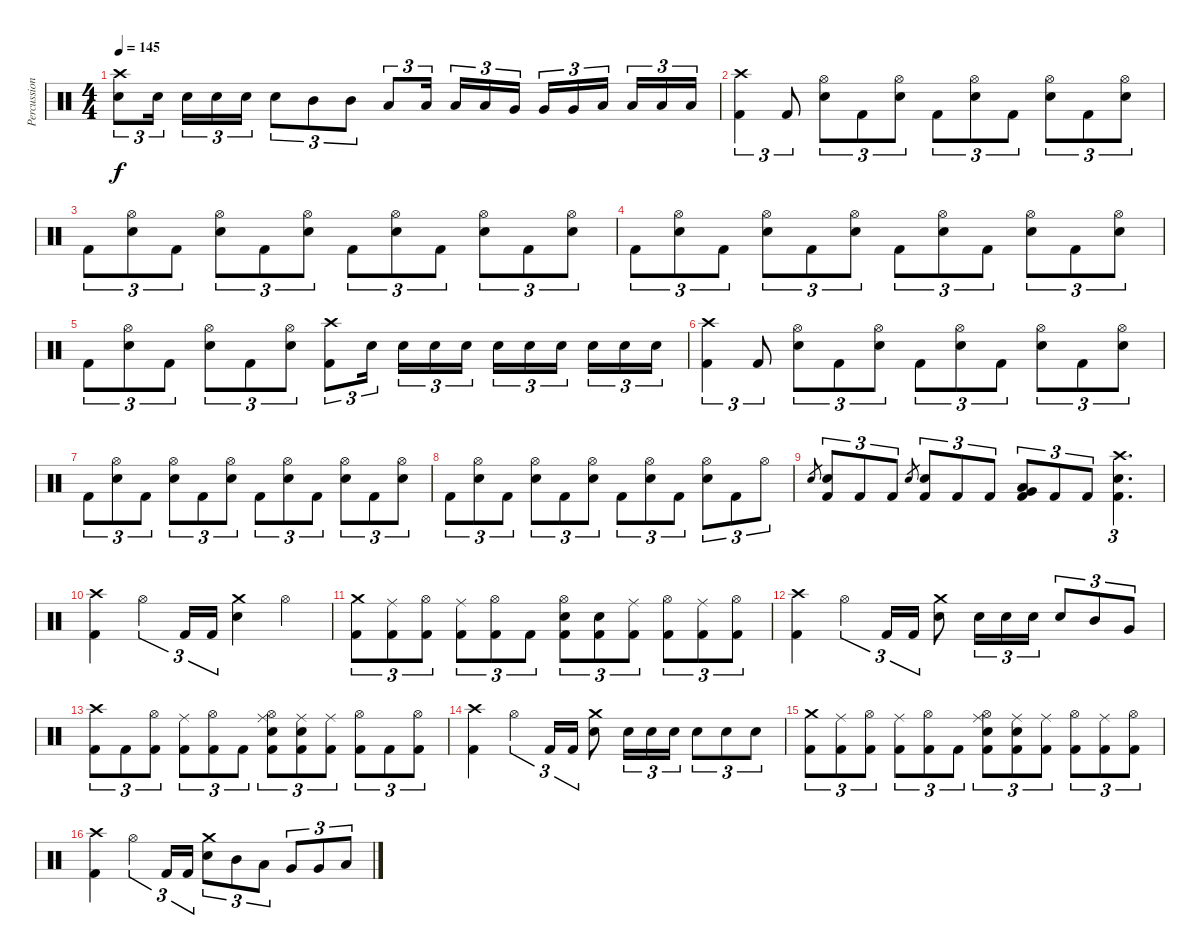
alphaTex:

\track ("Percussion" "Percussion") {instrument percussion}
\staff {score}
\articulation defaults
\ts (4 4)
\tempo 145
\clef neutral
\ks c
("Crash high (hit)" "Snare (hit) 2").8{tu (3 2) dy f} "Snare (hit) 2".16{tu (3 2) beam splitsecondary} "Snare (hit) 2".16{tu (3 2)} "Snare (hit) 2".16{tu (3 2)} "Snare (hit) 2".16{tu (3 2)} "Snare (hit) 2".8{tu (3 2)} "Mid Tom (hit)".8{tu (3 2)} "Mid Tom (hit)".8{tu (3 2)} "Low Tom (hit)".8{tu (3 2)} "Low Tom (hit)".16{tu (3 2) beam splitsecondary} "Low Tom (hit)".16{tu (3 2)} "Low Tom (hit)".16{tu (3 2)} "Very Low Tom (hit)".16{tu (3 2)} "Very Low Tom (hit)".16{tu (3 2)} "Very Low Tom (hit)".16{tu (3 2)} "Low Floor Tom (hit)".16{tu (3 2) beam splitsecondary} "Low Floor Tom (hit)".16{tu (3 2)} "Low Floor Tom (hit)".16{tu (3 2)} "Low Floor Tom (hit)".16{tu (3 2)} |
("Crash high (hit)" "Kick (hit) 2").4{tu (3 2)} "Kick (hit) 2".8{tu (3 2)} ("Hi-Hat (open)" "Snare (hit) 2").8{tu (3 2)} "Kick (hit) 2".8{tu (3 2)} ("Hi-Hat (open)" "Snare (hit) 2").8{tu (3 2)} "Kick (hit) 2".8{tu (3 2)} ("Hi-Hat (open)" "Snare (hit) 2").8{tu (3 2)} "Kick (hit) 2".8{tu (3 2)} ("Hi-Hat (open)" "Snare (hit) 2").8{tu (3 2)} "Kick (hit) 2".8{tu (3 2)} ("Hi-Hat (open)" "Snare (hit) 2").8{tu (3 2)} |
"Kick (hit) 2".8{tu (3 2)} ("Hi-Hat (open)" "Snare (hit) 2").8{tu (3 2)} "Kick (hit) 2".8{tu (3 2)} ("Hi-Hat (open)" "Snare (hit) 2").8{tu (3 2)} "Kick (hit) 2".8{tu (3 2)} ("Hi-Hat (open)" "Snare (hit) 2").8{tu (3 2)} "Kick (hit) 2".8{tu (3 2)} ("Hi-Hat (open)" "Snare (hit) 2").8{tu (3 2)} "Kick (hit) 2".8{tu (3 2)} ("Hi-Hat (open)" "Snare (hit) 2").8{tu (3 2)} "Kick (hit) 2".8{tu (3 2)} ("Hi-Hat (open)" "Snare (hit) 2").8{tu (3 2)} |
"Kick (hit) 2".8{tu (3 2)} ("Hi-Hat (open)" "Snare (hit) 2").8{tu (3 2)} "Kick (hit) 2".8{tu (3 2)} ("Hi-Hat (open)" "Snare (hit) 2").8{tu (3 2)} "Kick (hit) 2".8{tu (3 2)} ("Hi-Hat (open)" "Snare (hit) 2").8{tu (3 2)} "Kick (hit) 2".8{tu (3 2)} ("Hi-Hat (open)" "Snare (hit) 2").8{tu (3 2)} "Kick (hit) 2".8{tu (3 2)} ("Hi-Hat (open)" "Snare (hit) 2").8{tu (3 2)} "Kick (hit) 2".8{tu (3 2)} ("Hi-Hat (open)" "Snare (hit) 2").8{tu (3 2)} |
"Kick (hit) 2".8{tu (3 2)} ("Hi-Hat (open)" "Snare (hit) 2").8{tu (3 2)} "Kick (hit) 2".8{tu (3 2)} ("Hi-Hat (open)" "Snare (hit) 2").8{tu (3 2)} "Kick (hit) 2".8{tu (3 2)} ("Hi-Hat (open)" "Snare (hit) 2").8{tu (3 2)} ("Crash high (hit)" "Kick (hit) 2").8{tu (3 2)} "Snare (hit) 2".16{tu (3 2) beam splitsecondary} "Snare (hit) 2".16{tu (3 2)} "Snare (hit) 2".16{tu (3 2)} "Snare (hit) 2".16{tu (3 2)} "Snare (hit) 2".16{tu (3 2)} "Snare (hit) 2".16{tu (3 2)} "Snare (hit) 2".16{tu (3 2) beam splitsecondary} "Snare (hit) 2".16{tu (3 2)} "Snare (hit) 2".16{tu (3 2)} "Snare (hit) 2".16{tu (3 2)} |
("Crash high (hit)" "Kick (hit) 2").4{tu (3 2)} "Kick (hit) 2".8{tu (3 2)} ("Hi-Hat (open)" "Snare (hit) 2").8{tu (3 2)} "Kick (hit) 2".8{tu (3 2)} ("Hi-Hat (open)" "Snare (hit) 2").8{tu (3 2)} "Kick (hit) 2".8{tu (3 2)} ("Hi-Hat (open)" "Snare (hit) 2").8{tu (3 2)} "Kick (hit) 2".8{tu (3 2)} ("Hi-Hat (open)" "Snare (hit) 2").8{tu (3 2)} "Kick (hit) 2".8{tu (3 2)} ("Hi-Hat (open)" "Snare (hit) 2").8{tu (3 2)} |
"Kick (hit) 2".8{tu (3 2)} ("Hi-Hat (open)" "Snare (hit) 2").8{tu (3 2)} "Kick (hit) 2".8{tu (3 2)} ("Hi-Hat (open)" "Snare (hit) 2").8{tu (3 2)} "Kick (hit) 2".8{tu (3 2)} ("Hi-Hat (open)" "Snare (hit) 2").8{tu (3 2)} "Kick (hit) 2".8{tu (3 2)} ("Hi-Hat (open)" "Snare (hit) 2").8{tu (3 2)} "Kick (hit) 2".8{tu (3 2)} ("Hi-Hat (open)" "Snare (hit) 2").8{tu (3 2)} "Kick (hit) 2".8{tu (3 2)} ("Hi-Hat (open)" "Snare (hit) 2").8{tu (3 2)} |
"Kick (hit) 2".8{tu (3 2)} ("Hi-Hat (open)" "Snare (hit) 2").8{tu (3 2)} "Kick (hit) 2".8{tu (3 2)} ("Hi-Hat (open)" "Snare (hit) 2").8{tu (3 2)} "Kick (hit) 2".8{tu (3 2)} ("Hi-Hat (open)" "Snare (hit) 2").8{tu (3 2)} "Kick (hit) 2".8{tu (3 2)} ("Hi-Hat (open)" "Snare (hit) 2").8{tu (3 2)} "Kick (hit) 2".8{tu (3 2)} ("Hi-Hat (open)" "Snare (hit) 2").8{tu (3 2)} "Kick (hit) 2".8{tu (3 2)} "Hi-Hat (open)".8{tu (3 2)} |
"Snare (hit) 2".8{gr} ("Snare (hit) 2" "Kick (hit) 2").8{tu (3 2)} "Kick (hit) 2".8{tu (3 2)} "Kick (hit) 2".8{tu (3 2)} "Snare (hit) 2".8{gr} ("Snare (hit) 2" "Kick (hit) 2").8{tu (3 2)} "Kick (hit) 2".8{tu (3 2)} "Kick (hit) 2".8{tu (3 2)} ("Low Tom (hit)" "Very Low Tom (hit)" "Kick (hit) 2").8{tu (3 2)} "Kick (hit) 2".8{tu (3 2)} "Kick (hit) 2".8{tu (3 2)} ("Crash high (hit)" "Snare (hit) 2" "Kick (hit) 2").4{d tu (3 2)} |
("Crash high (hit)" "Kick (hit) 2").4 "Hi-Hat (open)".4{tu (3 2)} "Kick (hit) 2".16{tu (3 2)} "Kick (hit) 2".16{tu (3 2)} ("Crash medium (hit)" "Snare (hit) 2").4 "Hi-Hat (open)".4 |
("Crash medium (hit)" "Kick (hit) 2").8{tu (3 2)} ("Ride (middle)" "Kick (hit) 2").8{tu (3 2)} ("Hi-Hat (open)" "Kick (hit) 2").8{tu (3 2)} ("Ride (middle)" "Kick (hit) 2").8{tu (3 2)} ("Hi-Hat (open)" "Kick (hit) 2").8{tu (3 2)} "Kick (hit) 2".8{tu (3 2)} ("Snare (hit) 2" "Hi-Hat (open)" "Kick (hit) 2").8{tu (3 2)} ("Snare (hit) 2" "Kick (hit) 2").8{tu (3 2)} ("Ride (middle)" "Kick (hit) 2").8{tu (3 2)} ("Hi-Hat (open)" "Kick (hit) 2").8{tu (3 2)} ("Ride (middle)" "Kick (hit) 2").8{tu (3 2)} ("Hi-Hat (open)" "Kick (hit) 2").8{tu (3 2)} |
("Crash high (hit)" "Kick (hit) 2").4 "Hi-Hat (open)".4{tu (3 2)} "Kick (hit) 2".16{tu (3 2)} "Kick (hit) 2".16{tu (3 2)} ("Crash medium (hit)" "Snare (hit) 2").8 "Snare (hit) 2".16{tu (3 2)} "Snare (hit) 2".16{tu (3 2)} "Snare (hit) 2".16{tu (3 2)} "Snare (hit) 2".8{tu (3 2)} "Mid Tom (hit)".8{tu (3 2)} "Very Low Tom (hit)".8{tu (3 2)} |
("Crash high (hit)" "Kick (hit) 2").8{tu (3 2)} "Kick (hit) 2".8{tu (3 2)} ("Hi-Hat (open)" "Kick (hit) 2").8{tu (3 2)} ("Ride (middle)" "Kick (hit) 2").8{tu (3 2)} ("Hi-Hat (open)" "Kick (hit) 2").8{tu (3 2)} "Kick (hit) 2".8{tu (3 2)} ("Ride (middle)" "Snare (hit) 2" "Hi-Hat (open)" "Kick (hit) 2").8{tu (3 2)} ("Ride (middle)" "Snare (hit) 2" "Kick (hit) 2").8{tu (3 2)} ("Ride (middle)" "Kick (hit) 2").8{tu (3 2)} ("Hi-Hat (open)" "Kick (hit) 2").8{tu (3 2)} "Kick (hit) 2".8{tu (3 2)} ("Hi-Hat (open)" "Kick (hit) 2").8{tu (3 2)} |
("Crash high (hit)" "Kick (hit) 2").4 "Hi-Hat (open)".4{tu (3 2)} "Kick (hit) 2".16{tu (3 2)} "Kick (hit) 2".16{tu (3 2)} ("Crash medium (hit)" "Snare (hit) 2").8 "Snare (hit) 2".16{tu (3 2)} "Snare (hit) 2".16{tu (3 2)} "Snare (hit) 2".16{tu (3 2)} "Snare (hit) 2".8{tu (3 2)} "Snare (hit) 2".8{tu (3 2)} "Snare (hit) 2".8{tu (3 2)} |
("Crash medium (hit)" "Kick (hit) 2").8{tu (3 2)} ("Ride (middle)" "Kick (hit) 2").8{tu (3 2)} ("Hi-Hat (open)" "Kick (hit) 2").8{tu (3 2)} ("Ride (middle)" "Kick (hit) 2").8{tu (3 2)} ("Hi-Hat (open)" "Kick (hit) 2").8{tu (3 2)} "Kick (hit) 2".8{tu (3 2)} ("Ride (middle)" "Snare (hit) 2" "Hi-Hat (open)" "Kick (hit) 2").8{tu (3 2)} ("Ride (middle)" "Snare (hit) 2" "Kick (hit) 2").8{tu (3 2)} ("Ride (middle)" "Kick (hit) 2").8{tu (3 2)} ("Hi-Hat (open)" "Kick (hit) 2").8{tu (3 2)} ("Ride (middle)" "Kick (hit) 2").8{tu (3 2)} ("Hi-Hat (open)" "Kick (hit) 2").8{tu (3 2)} |
("Crash high (hit)" "Kick (hit) 2").4 "Hi-Hat (open)".4{tu (3 2)} "Kick (hit) 2".16{tu (3 2)} "Kick (hit) 2".16{tu (3 2)} ("Crash medium (hit)" "Snare (hit) 2").8{tu (3 2)} "Mid Tom (hit)".8{tu (3 2)} "Low Tom (hit)".8{tu (3 2)} "Very Low Tom (hit)".8{tu (3 2)} "Very Low Tom (hit)".8{tu (3 2)} "Low Floor Tom (hit)".8{tu (3 2)}
